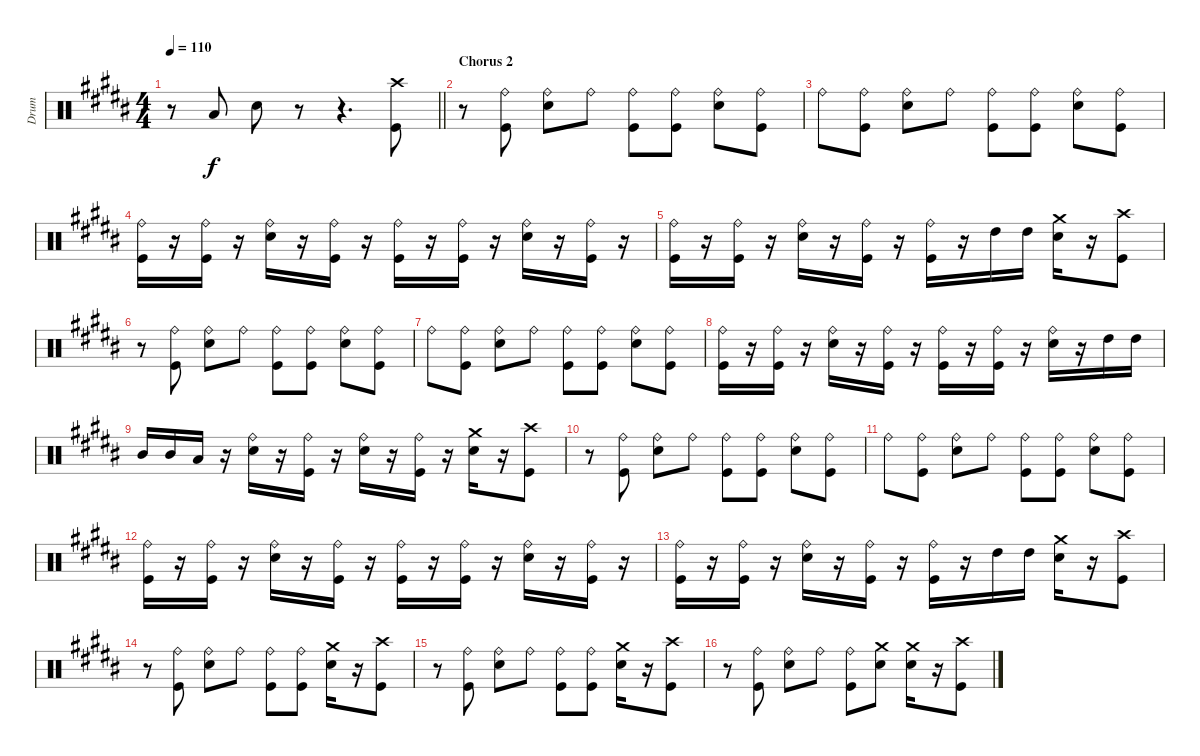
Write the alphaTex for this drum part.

\track ("Drum" "Drum") {instrument percussion}
\staff {score}
\articulation defaults
\ts (4 4)
\tempo 110
\clef neutral
\barLineRight lightlight
\ks g#minor
r.8{dy f} "Low Tom (hit)".8 "Snare (hit) 2".8 r.8 r.4{d} ("Kick (hit)" "Crash high (hit)").8 |
\section ("" "Chorus 2")
\ks b
r.8 ("Kick (hit)" "Ride (bell)").8 ("Snare (hit) 2" "Ride (bell)").8 "Ride (bell)".8 ("Kick (hit)" "Ride (bell)").8 ("Kick (hit)" "Ride (bell)").8 ("Snare (hit) 2" "Ride (bell)").8 ("Kick (hit)" "Ride (bell)").8 |
\ks g#minor "Ride (bell)".8
("Kick (hit)" "Ride (bell)").8 ("Snare (hit) 2" "Ride (bell)").8 "Ride (bell)".8 ("Kick (hit)" "Ride (bell)").8 ("Kick (hit)" "Ride (bell)").8 ("Snare (hit) 2" "Ride (bell)").8 ("Kick (hit)" "Ride (bell)").8 |
("Kick (hit)" "Ride (bell)").16 r.16 ("Kick (hit)" "Ride (bell)").16 r.16 ("Snare (hit) 2" "Ride (bell)").16 r.16 ("Kick (hit)" "Ride (bell)").16 r.16 ("Kick (hit)" "Ride (bell)").16 r.16 ("Kick (hit)" "Ride (bell)").16 r.16 ("Snare (hit) 2" "Ride (bell)").16 r.16 ("Kick (hit)" "Ride (bell)").16 r.16 |
("Kick (hit)" "Ride (bell)").16 r.16 ("Kick (hit)" "Ride (bell)").16 r.16 ("Snare (hit) 2" "Ride (bell)").16 r.16 ("Kick (hit)" "Ride (bell)").16 r.16 ("Kick (hit)" "Ride (bell)").16 r.16 "High Tom (hit)".16 "High Tom (hit)".16 ("Snare (hit) 2" "Crash medium (hit)").16 r.16 ("Kick (hit)" "Crash high (hit)").8 |
\ks b
r.8 ("Kick (hit)" "Ride (bell)").8 ("Snare (hit) 2" "Ride (bell)").8 "Ride (bell)".8 ("Kick (hit)" "Ride (bell)").8 ("Kick (hit)" "Ride (bell)").8 ("Snare (hit) 2" "Ride (bell)").8 ("Kick (hit)" "Ride (bell)").8 |
\ks g#minor "Ride (bell)".8
("Kick (hit)" "Ride (bell)").8 ("Snare (hit) 2" "Ride (bell)").8 "Ride (bell)".8 ("Kick (hit)" "Ride (bell)").8 ("Kick (hit)" "Ride (bell)").8 ("Snare (hit) 2" "Ride (bell)").8 ("Kick (hit)" "Ride (bell)").8 |
("Kick (hit)" "Ride (bell)").16 r.16 ("Kick (hit)" "Ride (bell)").16 r.16 ("Snare (hit) 2" "Ride (bell)").16 r.16 ("Kick (hit)" "Ride (bell)").16 r.16 ("Kick (hit)" "Ride (bell)").16 r.16 ("Kick (hit)" "Ride (bell)").16 r.16 ("Snare (hit) 2" "Ride (bell)").16 r.16 "High Tom (hit)".16 "High Tom (hit)".16 |
"Mid Tom (hit)".16 "Mid Tom (hit)".16 "Low Tom (hit)".16 r.16 ("Snare (hit) 2" "Ride (bell)").16 r.16 ("Kick (hit)" "Ride (bell)").16 r.16 ("Snare (hit) 2" "Ride (bell)").16 r.16 ("Kick (hit)" "Ride (bell)").16 r.16 ("Snare (hit) 2" "Crash medium (hit)").16 r.16 ("Kick (hit)" "Crash high (hit)").8 |
\ks b
r.8 ("Kick (hit)" "Ride (bell)").8 ("Snare (hit) 2" "Ride (bell)").8 "Ride (bell)".8 ("Kick (hit)" "Ride (bell)").8 ("Kick (hit)" "Ride (bell)").8 ("Snare (hit) 2" "Ride (bell)").8 ("Kick (hit)" "Ride (bell)").8 |
\ks g#minor "Ride (bell)".8
("Kick (hit)" "Ride (bell)").8 ("Snare (hit) 2" "Ride (bell)").8 "Ride (bell)".8 ("Kick (hit)" "Ride (bell)").8 ("Kick (hit)" "Ride (bell)").8 ("Snare (hit) 2" "Ride (bell)").8 ("Kick (hit)" "Ride (bell)").8 |
("Kick (hit)" "Ride (bell)").16 r.16 ("Kick (hit)" "Ride (bell)").16 r.16 ("Snare (hit) 2" "Ride (bell)").16 r.16 ("Kick (hit)" "Ride (bell)").16 r.16 ("Kick (hit)" "Ride (bell)").16 r.16 ("Kick (hit)" "Ride (bell)").16 r.16 ("Snare (hit) 2" "Ride (bell)").16 r.16 ("Kick (hit)" "Ride (bell)").16 r.16 |
("Kick (hit)" "Ride (bell)").16 r.16 ("Kick (hit)" "Ride (bell)").16 r.16 ("Snare (hit) 2" "Ride (bell)").16 r.16 ("Kick (hit)" "Ride (bell)").16 r.16 ("Kick (hit)" "Ride (bell)").16 r.16 "High Tom (hit)".16 "High Tom (hit)".16 ("Snare (hit) 2" "Crash medium (hit)").16 r.16 ("Kick (hit)" "Crash high (hit)").8 |
\ks b
r.8 ("Kick (hit)" "Ride (bell)").8 ("Snare (hit) 2" "Ride (bell)").8 "Ride (bell)".8 ("Kick (hit)" "Ride (bell)").8 ("Kick (hit)" "Ride (bell)").8 ("Snare (hit) 2" "Crash medium (hit)").16 r.16 ("Kick (hit)" "Crash high (hit)").8 |
\ks g#minor
r.8 ("Kick (hit)" "Ride (bell)").8 ("Snare (hit) 2" "Ride (bell)").8 "Ride (bell)".8 ("Kick (hit)" "Ride (bell)").8 ("Kick (hit)" "Ride (bell)").8 ("Snare (hit) 2" "Crash medium (hit)").16 r.16 ("Kick (hit)" "Crash high (hit)").8 |
r.8 ("Kick (hit)" "Ride (bell)").8 ("Snare (hit) 2" "Ride (bell)").8 "Ride (bell)".8 ("Kick (hit)" "Ride (bell)").8 ("Snare (hit) 2" "Crash medium (hit)").8 ("Snare (hit) 2" "Crash medium (hit)").16 r.16 ("Kick (hit)" "Crash high (hit)").8
